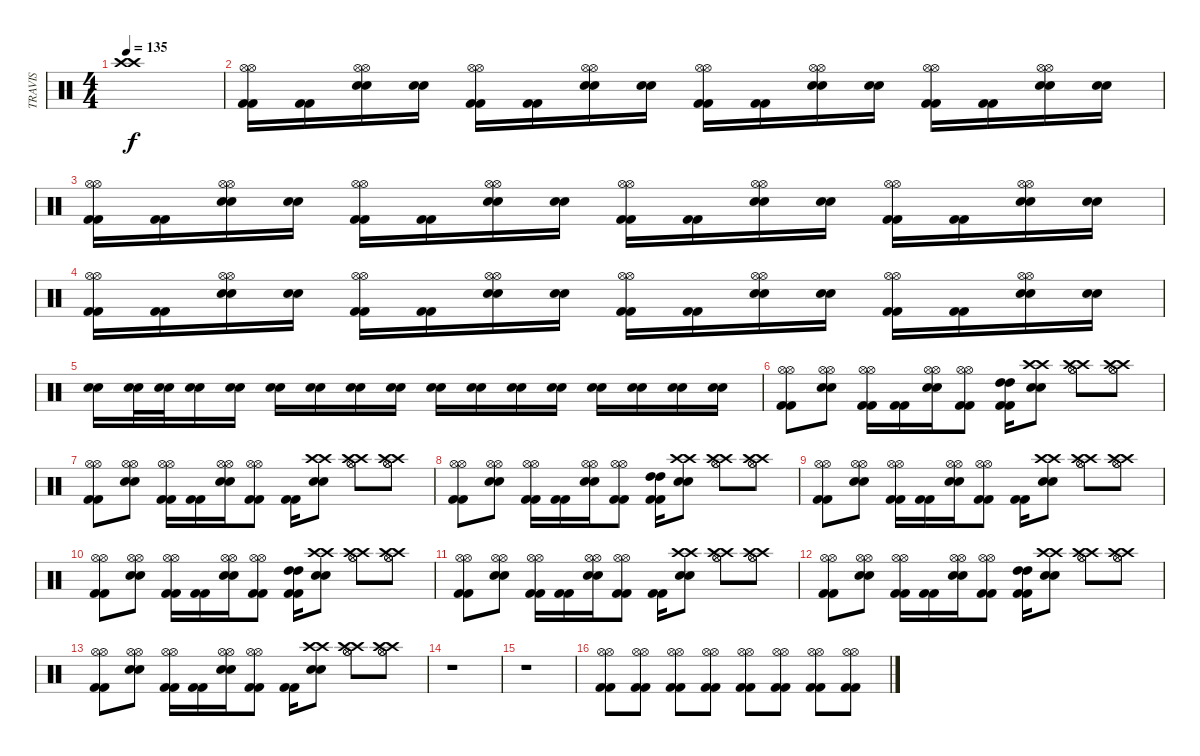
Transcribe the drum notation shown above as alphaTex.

\track ("TRAVIS" "TRAVIS") {instrument percussion}
\staff {score}
\articulation defaults
\ts (4 4)
\tempo 135
\clef neutral
\ks c
("Crash high (hit)"{t} "Crash high (hit)"{t}).1{dy f} |
("Kick (hit) 2" "Kick (hit) 2" "Hi-Hat (open)" "Hi-Hat (open)").16 ("Kick (hit) 2" "Kick (hit) 2").16 ("Snare (hit) 2" "Snare (hit) 2" "Hi-Hat (open)" "Hi-Hat (open)").16 ("Snare (hit) 2" "Snare (hit) 2").16 ("Kick (hit) 2" "Kick (hit) 2" "Hi-Hat (open)" "Hi-Hat (open)").16 ("Kick (hit) 2" "Kick (hit) 2").16 ("Snare (hit) 2" "Snare (hit) 2" "Hi-Hat (open)" "Hi-Hat (open)").16 ("Snare (hit) 2" "Snare (hit) 2").16 ("Kick (hit) 2" "Kick (hit) 2" "Hi-Hat (open)" "Hi-Hat (open)").16 ("Kick (hit) 2" "Kick (hit) 2").16 ("Snare (hit) 2" "Snare (hit) 2" "Hi-Hat (open)" "Hi-Hat (open)").16 ("Snare (hit) 2" "Snare (hit) 2").16 ("Kick (hit) 2" "Kick (hit) 2" "Hi-Hat (open)" "Hi-Hat (open)").16 ("Kick (hit) 2" "Kick (hit) 2").16 ("Snare (hit) 2" "Snare (hit) 2" "Hi-Hat (open)" "Hi-Hat (open)").16 ("Snare (hit) 2" "Snare (hit) 2").16 |
("Kick (hit) 2" "Kick (hit) 2" "Hi-Hat (open)" "Hi-Hat (open)").16 ("Kick (hit) 2" "Kick (hit) 2").16 ("Snare (hit) 2" "Snare (hit) 2" "Hi-Hat (open)" "Hi-Hat (open)").16 ("Snare (hit) 2" "Snare (hit) 2").16 ("Kick (hit) 2" "Kick (hit) 2" "Hi-Hat (open)" "Hi-Hat (open)").16 ("Kick (hit) 2" "Kick (hit) 2").16 ("Snare (hit) 2" "Snare (hit) 2" "Hi-Hat (open)" "Hi-Hat (open)").16 ("Snare (hit) 2" "Snare (hit) 2").16 ("Kick (hit) 2" "Kick (hit) 2" "Hi-Hat (open)" "Hi-Hat (open)").16 ("Kick (hit) 2" "Kick (hit) 2").16 ("Snare (hit) 2" "Snare (hit) 2" "Hi-Hat (open)" "Hi-Hat (open)").16 ("Snare (hit) 2" "Snare (hit) 2").16 ("Kick (hit) 2" "Kick (hit) 2" "Hi-Hat (open)" "Hi-Hat (open)").16 ("Kick (hit) 2" "Kick (hit) 2").16 ("Snare (hit) 2" "Snare (hit) 2" "Hi-Hat (open)" "Hi-Hat (open)").16 ("Snare (hit) 2" "Snare (hit) 2").16 |
("Kick (hit) 2" "Kick (hit) 2" "Hi-Hat (open)" "Hi-Hat (open)").16 ("Kick (hit) 2" "Kick (hit) 2").16 ("Snare (hit) 2" "Snare (hit) 2" "Hi-Hat (open)" "Hi-Hat (open)").16 ("Snare (hit) 2" "Snare (hit) 2").16 ("Kick (hit) 2" "Kick (hit) 2" "Hi-Hat (open)" "Hi-Hat (open)").16 ("Kick (hit) 2" "Kick (hit) 2").16 ("Snare (hit) 2" "Snare (hit) 2" "Hi-Hat (open)" "Hi-Hat (open)").16 ("Snare (hit) 2" "Snare (hit) 2").16 ("Kick (hit) 2" "Kick (hit) 2" "Hi-Hat (open)" "Hi-Hat (open)").16 ("Kick (hit) 2" "Kick (hit) 2").16 ("Snare (hit) 2" "Snare (hit) 2" "Hi-Hat (open)" "Hi-Hat (open)").16 ("Snare (hit) 2" "Snare (hit) 2").16 ("Kick (hit) 2" "Kick (hit) 2" "Hi-Hat (open)" "Hi-Hat (open)").16 ("Kick (hit) 2" "Kick (hit) 2").16 ("Snare (hit) 2" "Snare (hit) 2" "Hi-Hat (open)" "Hi-Hat (open)").16 ("Snare (hit) 2" "Snare (hit) 2").16 |
("Snare (hit) 2" "Snare (hit) 2").16 ("Snare (hit) 2" "Snare (hit) 2").32 ("Snare (hit) 2" "Snare (hit) 2").32 ("Snare (hit) 2" "Snare (hit) 2").16 ("Snare (hit) 2" "Snare (hit) 2").16 ("Snare (hit) 2" "Snare (hit) 2").16 ("Snare (hit) 2" "Snare (hit) 2").16 ("Snare (hit) 2" "Snare (hit) 2").16 ("Snare (hit) 2" "Snare (hit) 2").16 ("Snare (hit) 2" "Snare (hit) 2").16 ("Snare (hit) 2" "Snare (hit) 2").16 ("Snare (hit) 2" "Snare (hit) 2").16 ("Snare (hit) 2" "Snare (hit) 2").16 ("Snare (hit) 2" "Snare (hit) 2").16 ("Snare (hit) 2" "Snare (hit) 2").16 ("Snare (hit) 2" "Snare (hit) 2").16 ("Snare (hit) 2" "Snare (hit) 2").16 |
("Kick (hit) 2" "Kick (hit) 2" "Hi-Hat (open)" "Hi-Hat (open)").8 ("Snare (hit) 2" "Snare (hit) 2" "Hi-Hat (open)" "Hi-Hat (open)").8 ("Kick (hit) 2" "Kick (hit) 2" "Hi-Hat (open)" "Hi-Hat (open)").16 ("Kick (hit) 2" "Kick (hit) 2").16 ("Snare (hit) 2" "Snare (hit) 2" "Hi-Hat (open)" "Hi-Hat (open)").16 ("Kick (hit) 2" "Kick (hit) 2" "Hi-Hat (open)" "Hi-Hat (open)").8 ("Kick (hit) 2" "Kick (hit) 2" "High Tom (hit)" "High Tom (hit)").16 ("Snare (hit) 2" "Snare (hit) 2" "Crash high (hit)" "Crash high (hit)").8 ("Crash high (hit)" "Crash high (hit)" "Hi-Hat (open)" "Hi-Hat (open)").8 ("Crash high (hit)" "Crash high (hit)" "Hi-Hat (open)" "Hi-Hat (open)").8 |
("Kick (hit) 2" "Kick (hit) 2" "Hi-Hat (open)" "Hi-Hat (open)").8 ("Snare (hit) 2" "Snare (hit) 2" "Hi-Hat (open)" "Hi-Hat (open)").8 ("Kick (hit) 2" "Kick (hit) 2" "Hi-Hat (open)" "Hi-Hat (open)").16 ("Kick (hit) 2" "Kick (hit) 2").16 ("Snare (hit) 2" "Snare (hit) 2" "Hi-Hat (open)" "Hi-Hat (open)").16 ("Kick (hit) 2" "Kick (hit) 2" "Hi-Hat (open)" "Hi-Hat (open)").8 ("Kick (hit) 2" "Kick (hit) 2").16 ("Snare (hit) 2" "Snare (hit) 2" "Crash high (hit)" "Crash high (hit)").8 ("Crash high (hit)" "Crash high (hit)" "Hi-Hat (open)" "Hi-Hat (open)").8 ("Crash high (hit)" "Crash high (hit)" "Hi-Hat (open)" "Hi-Hat (open)").8 |
("Kick (hit) 2" "Kick (hit) 2" "Hi-Hat (open)" "Hi-Hat (open)").8 ("Snare (hit) 2" "Snare (hit) 2" "Hi-Hat (open)" "Hi-Hat (open)").8 ("Kick (hit) 2" "Kick (hit) 2" "Hi-Hat (open)" "Hi-Hat (open)").16 ("Kick (hit) 2" "Kick (hit) 2").16 ("Snare (hit) 2" "Snare (hit) 2" "Hi-Hat (open)" "Hi-Hat (open)").16 ("Kick (hit) 2" "Kick (hit) 2" "Hi-Hat (open)" "Hi-Hat (open)").8 ("Kick (hit) 2" "Kick (hit) 2" "High Tom (hit)" "High Tom (hit)").16 ("Snare (hit) 2" "Snare (hit) 2" "Crash high (hit)" "Crash high (hit)").8 ("Crash high (hit)" "Crash high (hit)" "Hi-Hat (open)" "Hi-Hat (open)").8 ("Crash high (hit)" "Crash high (hit)" "Hi-Hat (open)" "Hi-Hat (open)").8 |
("Kick (hit) 2" "Kick (hit) 2" "Hi-Hat (open)" "Hi-Hat (open)").8 ("Snare (hit) 2" "Snare (hit) 2" "Hi-Hat (open)" "Hi-Hat (open)").8 ("Kick (hit) 2" "Kick (hit) 2" "Hi-Hat (open)" "Hi-Hat (open)").16 ("Kick (hit) 2" "Kick (hit) 2").16 ("Snare (hit) 2" "Snare (hit) 2" "Hi-Hat (open)" "Hi-Hat (open)").16 ("Kick (hit) 2" "Kick (hit) 2" "Hi-Hat (open)" "Hi-Hat (open)").8 ("Kick (hit) 2" "Kick (hit) 2").16 ("Snare (hit) 2" "Snare (hit) 2" "Crash high (hit)" "Crash high (hit)").8 ("Crash high (hit)" "Crash high (hit)" "Hi-Hat (open)" "Hi-Hat (open)").8 ("Crash high (hit)" "Crash high (hit)" "Hi-Hat (open)" "Hi-Hat (open)").8 |
("Kick (hit) 2" "Kick (hit) 2" "Hi-Hat (open)" "Hi-Hat (open)").8 ("Snare (hit) 2" "Snare (hit) 2" "Hi-Hat (open)" "Hi-Hat (open)").8 ("Kick (hit) 2" "Kick (hit) 2" "Hi-Hat (open)" "Hi-Hat (open)").16 ("Kick (hit) 2" "Kick (hit) 2").16 ("Snare (hit) 2" "Snare (hit) 2" "Hi-Hat (open)" "Hi-Hat (open)").16 ("Kick (hit) 2" "Kick (hit) 2" "Hi-Hat (open)" "Hi-Hat (open)").8 ("Kick (hit) 2" "Kick (hit) 2" "High Tom (hit)" "High Tom (hit)").16 ("Snare (hit) 2" "Snare (hit) 2" "Crash high (hit)" "Crash high (hit)").8 ("Crash high (hit)" "Crash high (hit)" "Hi-Hat (open)" "Hi-Hat (open)").8 ("Crash high (hit)" "Crash high (hit)" "Hi-Hat (open)" "Hi-Hat (open)").8 |
("Kick (hit) 2" "Kick (hit) 2" "Hi-Hat (open)" "Hi-Hat (open)").8 ("Snare (hit) 2" "Snare (hit) 2" "Hi-Hat (open)" "Hi-Hat (open)").8 ("Kick (hit) 2" "Kick (hit) 2" "Hi-Hat (open)" "Hi-Hat (open)").16 ("Kick (hit) 2" "Kick (hit) 2").16 ("Snare (hit) 2" "Snare (hit) 2" "Hi-Hat (open)" "Hi-Hat (open)").16 ("Kick (hit) 2" "Kick (hit) 2" "Hi-Hat (open)" "Hi-Hat (open)").8 ("Kick (hit) 2" "Kick (hit) 2").16 ("Snare (hit) 2" "Snare (hit) 2" "Crash high (hit)" "Crash high (hit)").8 ("Crash high (hit)" "Crash high (hit)" "Hi-Hat (open)" "Hi-Hat (open)").8 ("Crash high (hit)" "Crash high (hit)" "Hi-Hat (open)" "Hi-Hat (open)").8 |
("Kick (hit) 2" "Kick (hit) 2" "Hi-Hat (open)" "Hi-Hat (open)").8 ("Snare (hit) 2" "Snare (hit) 2" "Hi-Hat (open)" "Hi-Hat (open)").8 ("Kick (hit) 2" "Kick (hit) 2" "Hi-Hat (open)" "Hi-Hat (open)").16 ("Kick (hit) 2" "Kick (hit) 2").16 ("Snare (hit) 2" "Snare (hit) 2" "Hi-Hat (open)" "Hi-Hat (open)").16 ("Kick (hit) 2" "Kick (hit) 2" "Hi-Hat (open)" "Hi-Hat (open)").8 ("Kick (hit) 2" "Kick (hit) 2" "High Tom (hit)" "High Tom (hit)").16 ("Snare (hit) 2" "Snare (hit) 2" "Crash high (hit)" "Crash high (hit)").8 ("Crash high (hit)" "Crash high (hit)" "Hi-Hat (open)" "Hi-Hat (open)").8 ("Crash high (hit)" "Crash high (hit)" "Hi-Hat (open)" "Hi-Hat (open)").8 |
("Kick (hit) 2" "Kick (hit) 2" "Hi-Hat (open)" "Hi-Hat (open)").8 ("Snare (hit) 2" "Snare (hit) 2" "Hi-Hat (open)" "Hi-Hat (open)").8 ("Kick (hit) 2" "Kick (hit) 2" "Hi-Hat (open)" "Hi-Hat (open)").16 ("Kick (hit) 2" "Kick (hit) 2").16 ("Snare (hit) 2" "Snare (hit) 2" "Hi-Hat (open)" "Hi-Hat (open)").16 ("Kick (hit) 2" "Kick (hit) 2" "Hi-Hat (open)" "Hi-Hat (open)").8 ("Kick (hit) 2" "Kick (hit) 2").16 ("Snare (hit) 2" "Snare (hit) 2" "Crash high (hit)" "Crash high (hit)").8 ("Crash high (hit)" "Crash high (hit)" "Hi-Hat (open)" "Hi-Hat (open)").8 ("Crash high (hit)" "Crash high (hit)" "Hi-Hat (open)" "Hi-Hat (open)").8 |
r.1 |
r.1 |
("Hi-Hat (open)" "Hi-Hat (open)" "Kick (hit) 2" "Kick (hit) 2").8 ("Hi-Hat (open)" "Hi-Hat (open)" "Kick (hit) 2" "Kick (hit) 2").8 ("Hi-Hat (open)" "Hi-Hat (open)" "Kick (hit) 2" "Kick (hit) 2").8 ("Hi-Hat (open)" "Hi-Hat (open)" "Kick (hit) 2" "Kick (hit) 2").8 ("Hi-Hat (open)" "Hi-Hat (open)" "Kick (hit) 2" "Kick (hit) 2").8 ("Hi-Hat (open)" "Hi-Hat (open)" "Kick (hit) 2" "Kick (hit) 2").8 ("Hi-Hat (open)" "Hi-Hat (open)" "Kick (hit) 2" "Kick (hit) 2").8 ("Hi-Hat (open)" "Hi-Hat (open)" "Kick (hit) 2" "Kick (hit) 2").8
